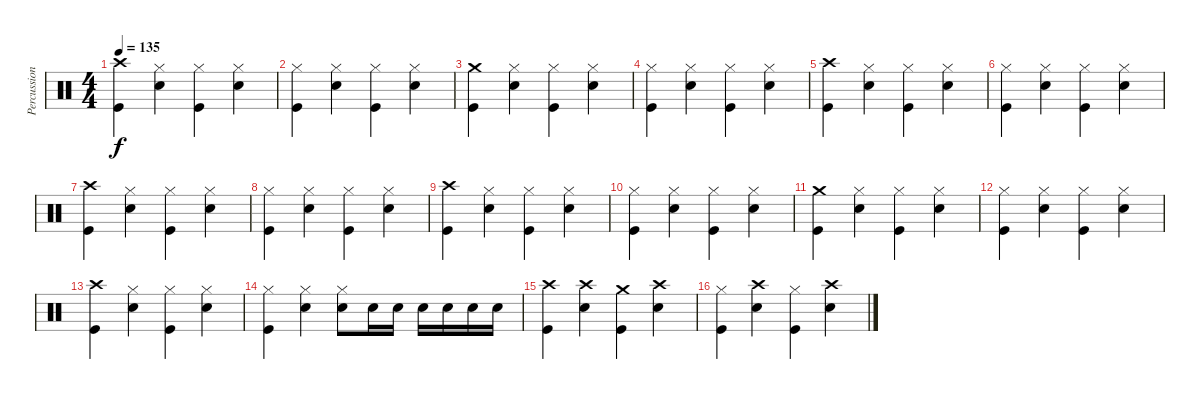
\track ("Percussions" "Percussion") {instrument percussion}
\staff {score}
\articulation defaults
\ts (4 4)
\tempo 135
\clef neutral
\ks c
("Kick (hit)" "Crash high (hit)").4{dy f} ("Snare (hit) 2" "Hi-Hat (closed)").4 ("Kick (hit)" "Hi-Hat (closed)").4 ("Snare (hit) 2" "Hi-Hat (closed)").4 |
("Kick (hit)" "Hi-Hat (closed)").4 ("Snare (hit) 2" "Hi-Hat (closed)").4 ("Kick (hit)" "Hi-Hat (closed)").4 ("Snare (hit) 2" "Hi-Hat (closed)").4 |
("Kick (hit)" "Crash medium (hit)").4 ("Hi-Hat (closed)" "Snare (hit) 2").4 ("Hi-Hat (closed)" "Kick (hit)").4 ("Hi-Hat (closed)" "Snare (hit) 2").4 |
("Kick (hit)" "Hi-Hat (closed)").4 ("Snare (hit) 2" "Hi-Hat (closed)").4 ("Kick (hit)" "Hi-Hat (closed)").4 ("Snare (hit) 2" "Hi-Hat (closed)").4 |
("Kick (hit)" "Crash high (hit)").4 ("Hi-Hat (closed)" "Snare (hit) 2").4 ("Hi-Hat (closed)" "Kick (hit)").4 ("Hi-Hat (closed)" "Snare (hit) 2").4 |
("Hi-Hat (closed)" "Kick (hit)").4 ("Hi-Hat (closed)" "Snare (hit) 2").4 ("Hi-Hat (closed)" "Kick (hit)").4 ("Hi-Hat (closed)" "Snare (hit) 2").4 |
("Crash high (hit)" "Kick (hit)").4 ("Snare (hit) 2" "Hi-Hat (closed)").4 ("Kick (hit)" "Hi-Hat (closed)").4 ("Snare (hit) 2" "Hi-Hat (closed)").4 |
("Hi-Hat (closed)" "Kick (hit)").4 ("Snare (hit) 2" "Hi-Hat (closed)").4 ("Kick (hit)" "Hi-Hat (closed)").4 ("Snare (hit) 2" "Hi-Hat (closed)").4 |
("Kick (hit)" "Crash high (hit)").4 ("Snare (hit) 2" "Hi-Hat (closed)").4 ("Kick (hit)" "Hi-Hat (closed)").4 ("Snare (hit) 2" "Hi-Hat (closed)").4 |
("Kick (hit)" "Hi-Hat (closed)").4 ("Snare (hit) 2" "Hi-Hat (closed)").4 ("Kick (hit)" "Hi-Hat (closed)").4 ("Snare (hit) 2" "Hi-Hat (closed)").4 |
("Kick (hit)" "Crash medium (hit)").4 ("Hi-Hat (closed)" "Snare (hit) 2").4 ("Hi-Hat (closed)" "Kick (hit)").4 ("Hi-Hat (closed)" "Snare (hit) 2").4 |
("Kick (hit)" "Hi-Hat (closed)").4 ("Snare (hit) 2" "Hi-Hat (closed)").4 ("Kick (hit)" "Hi-Hat (closed)").4 ("Snare (hit) 2" "Hi-Hat (closed)").4 |
("Kick (hit)" "Crash high (hit)").4 ("Hi-Hat (closed)" "Snare (hit) 2").4 ("Hi-Hat (closed)" "Kick (hit)").4 ("Hi-Hat (closed)" "Snare (hit) 2").4 |
("Kick (hit)" "Hi-Hat (closed)").4 ("Hi-Hat (closed)" "Snare (hit) 2").4 ("Snare (hit) 2" "Hi-Hat (closed)").8 "Snare (hit) 2".16 "Snare (hit) 2".16 "Snare (hit) 2".16 "Snare (hit) 2".16 "Snare (hit) 2".16 "Snare (hit) 2".16 |
("Kick (hit)" "Crash high (hit)").4 ("Crash high (hit)" "Snare (hit) 2").4 ("Kick (hit)" "Crash medium (hit)").4 ("Crash high (hit)" "Snare (hit) 2").4 |
("Kick (hit)" "Hi-Hat (closed)").4 ("Crash high (hit)" "Snare (hit) 2").4 ("Kick (hit)" "Hi-Hat (closed)").4 ("Snare (hit) 2" "Crash high (hit)").4
